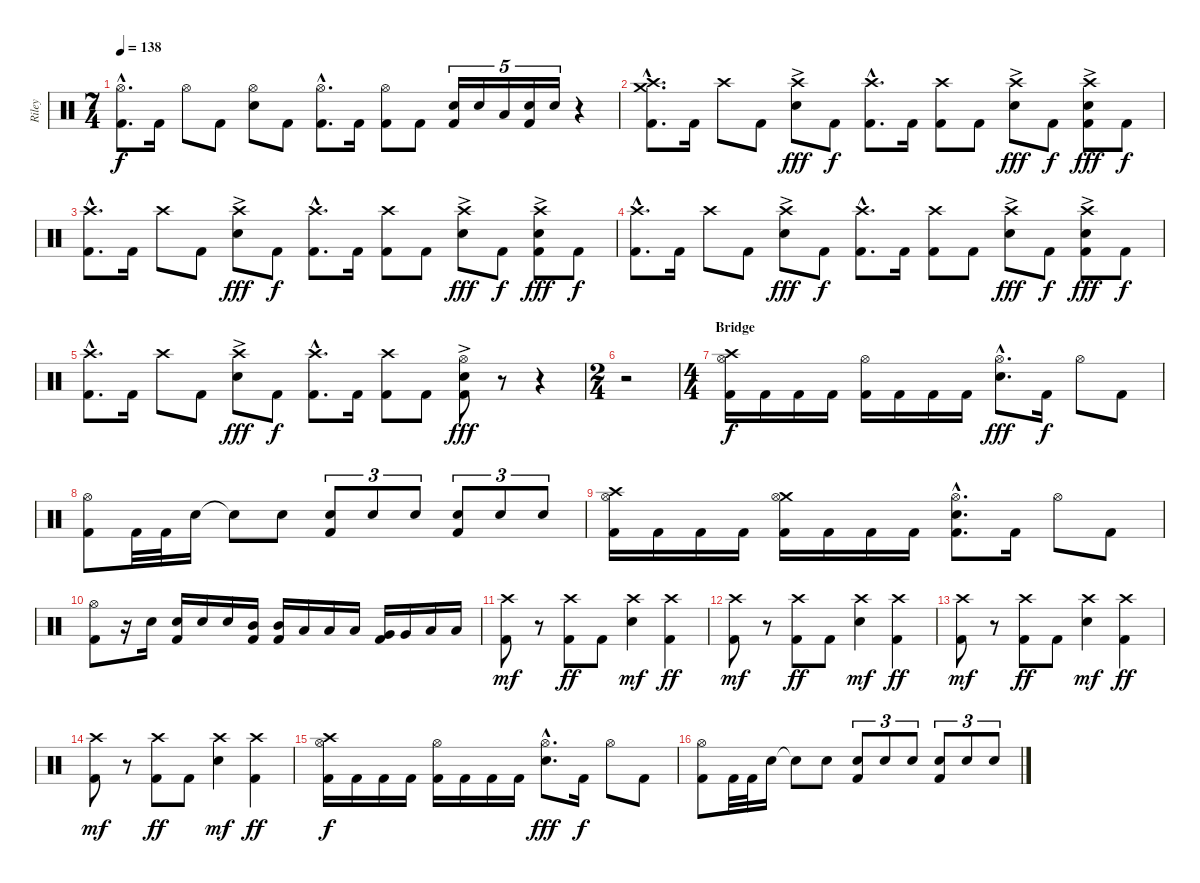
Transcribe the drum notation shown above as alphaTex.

\track ("Riley" "Riley") {instrument percussion}
\staff {score}
\articulation defaults
\ts (7 4)
\tempo 138
\clef neutral
\ks c
("Hi-Hat (open)"{hac} "Kick (hit) 2"{hac}).8{d dy f} "Kick (hit) 2".16 "Hi-Hat (open)".8 "Kick (hit) 2".8 ("Hi-Hat (open)" "Electric Snare (hit)").8 "Kick (hit) 2".8 ("Hi-Hat (open)"{hac} "Kick (hit) 2"{hac}).8{d} "Kick (hit) 2".16 ("Hi-Hat (open)" "Kick (hit) 2").8 "Kick (hit) 2".8 ("Electric Snare (hit)" "Kick (hit) 2").16{tu (5 4)} "Electric Snare (hit)".16{tu (5 4)} "Low Tom (hit)".16{tu (5 4)} ("Electric Snare (hit)" "Kick (hit) 2").16{tu (5 4)} "Electric Snare (hit)".16{tu (5 4)} r.4 |
("Crash medium (hit)"{hac} "Crash high (hit)"{hac} "Kick (hit) 2"{hac}).8{d} "Kick (hit) 2".16 "Crash high (hit)".8 "Kick (hit) 2".8 ("Crash high (hit)" "Electric Snare (hit)"{ac}).8{dy fff} "Kick (hit) 2".8{dy f} ("Crash high (hit)"{hac} "Kick (hit) 2"{hac}).8{d} "Kick (hit) 2".16 ("Crash high (hit)" "Kick (hit) 2").8 "Kick (hit) 2".8 ("Crash high (hit)" "Electric Snare (hit)"{ac}).8{dy fff} "Kick (hit) 2".8{dy f} ("Crash high (hit)" "Electric Snare (hit)"{ac} "Kick (hit) 2").8{dy fff} "Kick (hit) 2".8{dy f} |
("Crash high (hit)"{hac} "Kick (hit) 2"{hac}).8{d} "Kick (hit) 2".16 "Crash high (hit)".8 "Kick (hit) 2".8 ("Crash high (hit)" "Electric Snare (hit)"{ac}).8{dy fff} "Kick (hit) 2".8{dy f} ("Crash high (hit)"{hac} "Kick (hit) 2"{hac}).8{d} "Kick (hit) 2".16 ("Crash high (hit)" "Kick (hit) 2").8 "Kick (hit) 2".8 ("Crash high (hit)" "Electric Snare (hit)"{ac}).8{dy fff} "Kick (hit) 2".8{dy f} ("Crash high (hit)" "Electric Snare (hit)"{ac} "Kick (hit) 2").8{dy fff} "Kick (hit) 2".8{dy f} |
("Crash high (hit)"{hac} "Kick (hit) 2"{hac}).8{d} "Kick (hit) 2".16 "Crash high (hit)".8 "Kick (hit) 2".8 ("Crash high (hit)" "Electric Snare (hit)"{ac}).8{dy fff} "Kick (hit) 2".8{dy f} ("Crash high (hit)"{hac} "Kick (hit) 2"{hac}).8{d} "Kick (hit) 2".16 ("Crash high (hit)" "Kick (hit) 2").8 "Kick (hit) 2".8 ("Crash high (hit)" "Electric Snare (hit)"{ac}).8{dy fff} "Kick (hit) 2".8{dy f} ("Crash high (hit)" "Electric Snare (hit)"{ac} "Kick (hit) 2").8{dy fff} "Kick (hit) 2".8{dy f} |
("Crash high (hit)"{hac} "Kick (hit) 2"{hac}).8{d} "Kick (hit) 2".16 "Crash high (hit)".8 "Kick (hit) 2".8 ("Crash high (hit)" "Electric Snare (hit)"{ac}).8{dy fff} "Kick (hit) 2".8{dy f} ("Crash high (hit)"{hac} "Kick (hit) 2"{hac}).8{d} "Kick (hit) 2".16 ("Crash high (hit)" "Kick (hit) 2").8 "Kick (hit) 2".8 ("Hi-Hat (open)" "Electric Snare (hit)"{ac} "Kick (hit) 2").8{dy fff} r.8 r.4 |
\ts (2 4)
r.2 |
\ts (4 4)
\section ("" "Bridge")
("Crash high (hit)" "Hi-Hat (open)" "Kick (hit) 2").16{dy f} "Kick (hit) 2".16 "Kick (hit) 2".16 "Kick (hit) 2".16 ("Hi-Hat (open)" "Kick (hit) 2").16 "Kick (hit) 2".16 "Kick (hit) 2".16 "Kick (hit) 2".16 ("Hi-Hat (open)"{hac} "Electric Snare (hit)"{hac}).8{d dy fff} "Kick (hit) 2".16{dy f} "Hi-Hat (open)".8 "Kick (hit) 2".8 |
("Hi-Hat (open)" "Kick (hit) 2").8 "Kick (hit) 2".32 "Kick (hit) 2".32 "Electric Snare (hit)".16 "Snare (hit)"{t}.8 "Electric Snare (hit)".8 ("Electric Snare (hit)" "Kick (hit) 2").8{tu (3 2)} "Electric Snare (hit)".8{tu (3 2)} "Electric Snare (hit)".8{tu (3 2)} ("Electric Snare (hit)" "Kick (hit) 2").8{tu (3 2)} "Electric Snare (hit)".8{tu (3 2)} "Electric Snare (hit)".8{tu (3 2)} |
("Crash high (hit)" "Hi-Hat (open)" "Kick (hit) 2").16 "Kick (hit) 2".16 "Kick (hit) 2".16 "Kick (hit) 2".16 ("Crash medium (hit)" "Hi-Hat (open)" "Kick (hit) 2").16 "Kick (hit) 2".16 "Kick (hit) 2".16 "Kick (hit) 2".16 ("Hi-Hat (open)"{hac} "Electric Snare (hit)"{hac} "Kick (hit) 2"{hac}).8{d} "Kick (hit) 2".16 "Hi-Hat (open)".8 "Kick (hit) 2".8 |
("Hi-Hat (open)" "Kick (hit) 2").8 r.16 "Electric Snare (hit)".16 ("Electric Snare (hit)" "Kick (hit) 2").16 "Electric Snare (hit)".16 "Electric Snare (hit)".16 ("Mid Tom (hit)" "Kick (hit) 2").16 ("Mid Tom (hit)" "Kick (hit) 2").16 "Low Tom (hit)".16 "Low Tom (hit)".16 "Low Tom (hit)".16 ("Very Low Tom (hit)" "Kick (hit) 2").16 "Very Low Tom (hit)".16 "Low Floor Tom (hit)".16 "Low Floor Tom (hit)".16 |
("Crash high (hit)" "Kick (hit) 2").8{dy mf} r.8 ("Crash high (hit)" "Kick (hit) 2").8{dy ff} "Kick (hit) 2".8 ("Crash high (hit)" "Electric Snare (hit)").4{dy mf} ("Crash high (hit)" "Kick (hit) 2").4{dy ff} |
("Crash high (hit)" "Kick (hit) 2").8{dy mf} r.8 ("Crash high (hit)" "Kick (hit) 2").8{dy ff} "Kick (hit) 2".8 ("Crash high (hit)" "Electric Snare (hit)").4{dy mf} ("Crash high (hit)" "Kick (hit) 2").4{dy ff} |
("Crash high (hit)" "Kick (hit) 2").8{dy mf} r.8 ("Crash high (hit)" "Kick (hit) 2").8{dy ff} "Kick (hit) 2".8 ("Crash high (hit)" "Electric Snare (hit)").4{dy mf} ("Crash high (hit)" "Kick (hit) 2").4{dy ff} |
("Crash high (hit)" "Kick (hit) 2").8{dy mf} r.8 ("Crash high (hit)" "Kick (hit) 2").8{dy ff} "Kick (hit) 2".8 ("Crash high (hit)" "Electric Snare (hit)").4{dy mf} ("Crash high (hit)" "Kick (hit) 2").4{dy ff} |
("Crash high (hit)" "Hi-Hat (open)" "Kick (hit) 2").16{dy f} "Kick (hit) 2".16 "Kick (hit) 2".16 "Kick (hit) 2".16 ("Hi-Hat (open)" "Kick (hit) 2").16 "Kick (hit) 2".16 "Kick (hit) 2".16 "Kick (hit) 2".16 ("Hi-Hat (open)"{hac} "Electric Snare (hit)"{hac}).8{d dy fff} "Kick (hit) 2".16{dy f} "Hi-Hat (open)".8 "Kick (hit) 2".8 |
("Hi-Hat (open)" "Kick (hit) 2").8 "Kick (hit) 2".32 "Kick (hit) 2".32 "Electric Snare (hit)".16 "Snare (hit)"{t}.8 "Electric Snare (hit)".8 ("Electric Snare (hit)" "Kick (hit) 2").8{tu (3 2)} "Electric Snare (hit)".8{tu (3 2)} "Electric Snare (hit)".8{tu (3 2)} ("Electric Snare (hit)" "Kick (hit) 2").8{tu (3 2)} "Electric Snare (hit)".8{tu (3 2)} "Electric Snare (hit)".8{tu (3 2)}
